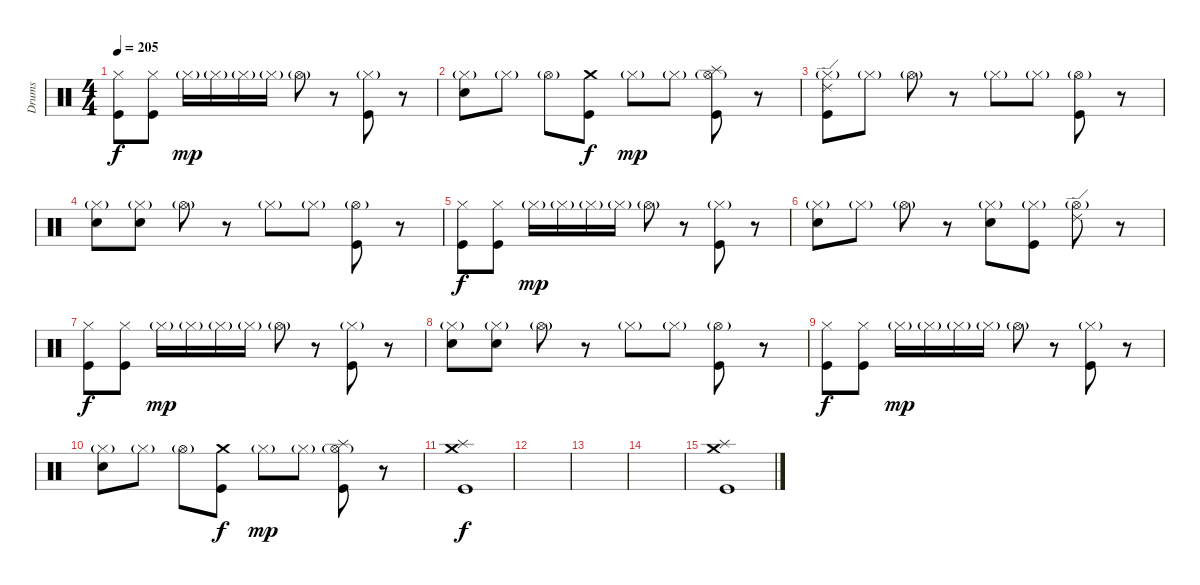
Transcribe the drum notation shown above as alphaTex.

\track ("Drums" "Drums") {instrument percussion}
\staff {score}
\articulation defaults
\ts (4 4)
\tempo 205
\clef neutral
\ks c
("Hi-Hat (closed)" "Kick (hit)").8{dy f} ("Hi-Hat (closed)" "Kick (hit)").8 "Hi-Hat (closed)"{g}.16{dy mp} "Hi-Hat (closed)"{g}.16 "Hi-Hat (closed)"{g}.16 "Hi-Hat (closed)"{g}.16 "Hi-Hat (open)"{g}.8 r.8 ("Hi-Hat (closed)"{g} "Kick (hit)").8 r.8 |
("Electric Snare (hit)" "Hi-Hat (closed)"{g}).8 "Hi-Hat (closed)"{g}.8 "Hi-Hat (open)"{g}.8 ("Crash medium (hit)" "Kick (hit)").8{dy f} "Hi-Hat (closed)"{g}.8{dy mp} "Hi-Hat (closed)"{g}.8 ("Splash (hit)" "Hi-Hat (open)"{g} "Kick (hit)").8 r.8 |
("Ride (edge) 2" "Hi-Hat (closed)"{g} "Kick (hit)").8 "Hi-Hat (closed)"{g}.8 "Hi-Hat (open)"{g}.8 r.8 "Hi-Hat (closed)"{g}.8 "Hi-Hat (closed)"{g}.8 ("Hi-Hat (open)"{g} "Kick (hit)").8 r.8 |
("Electric Snare (hit)" "Hi-Hat (closed)"{g}).8 ("Electric Snare (hit)" "Hi-Hat (closed)"{g}).8 "Hi-Hat (open)"{g}.8 r.8 "Hi-Hat (closed)"{g}.8 "Hi-Hat (closed)"{g}.8 ("Hi-Hat (open)"{g} "Kick (hit)").8 r.8 |
("Hi-Hat (closed)" "Kick (hit)").8{dy f} ("Hi-Hat (closed)" "Kick (hit)").8 "Hi-Hat (closed)"{g}.16{dy mp} "Hi-Hat (closed)"{g}.16 "Hi-Hat (closed)"{g}.16 "Hi-Hat (closed)"{g}.16 "Hi-Hat (open)"{g}.8 r.8 ("Hi-Hat (closed)"{g} "Kick (hit)").8 r.8 |
("Electric Snare (hit)" "Hi-Hat (closed)"{g}).8 "Hi-Hat (closed)"{g}.8 "Hi-Hat (open)"{g}.8 r.8 ("Electric Snare (hit)" "Hi-Hat (closed)"{g}).8 ("Hi-Hat (closed)"{g} "Kick (hit)").8 ("Ride (edge) 2" "Hi-Hat (open)"{g}).8 r.8 |
("Hi-Hat (closed)" "Kick (hit)").8{dy f} ("Hi-Hat (closed)" "Kick (hit)").8 "Hi-Hat (closed)"{g}.16{dy mp} "Hi-Hat (closed)"{g}.16 "Hi-Hat (closed)"{g}.16 "Hi-Hat (closed)"{g}.16 "Hi-Hat (open)"{g}.8 r.8 ("Hi-Hat (closed)"{g} "Kick (hit)").8 r.8 |
("Electric Snare (hit)" "Hi-Hat (closed)"{g}).8 ("Electric Snare (hit)" "Hi-Hat (closed)"{g}).8 "Hi-Hat (open)"{g}.8 r.8 "Hi-Hat (closed)"{g}.8 "Hi-Hat (closed)"{g}.8 ("Hi-Hat (open)"{g} "Kick (hit)").8 r.8 |
("Hi-Hat (closed)" "Kick (hit)").8{dy f} ("Hi-Hat (closed)" "Kick (hit)").8 "Hi-Hat (closed)"{g}.16{dy mp} "Hi-Hat (closed)"{g}.16 "Hi-Hat (closed)"{g}.16 "Hi-Hat (closed)"{g}.16 "Hi-Hat (open)"{g}.8 r.8 ("Hi-Hat (closed)"{g} "Kick (hit)").8 r.8 |
("Electric Snare (hit)" "Hi-Hat (closed)"{g}).8 "Hi-Hat (closed)"{g}.8 "Hi-Hat (open)"{g}.8 ("Crash medium (hit)" "Kick (hit)").8{dy f} "Hi-Hat (closed)"{g}.8{dy mp} "Hi-Hat (closed)"{g}.8 ("Splash (hit)" "Hi-Hat (open)"{g} "Kick (hit)").8 r.8 |
("Crash medium (hit)" "Splash (hit)" "Kick (hit)").1{dy f} |
|
|
|
("Crash medium (hit)" "Splash (hit)" "Kick (hit)").1
